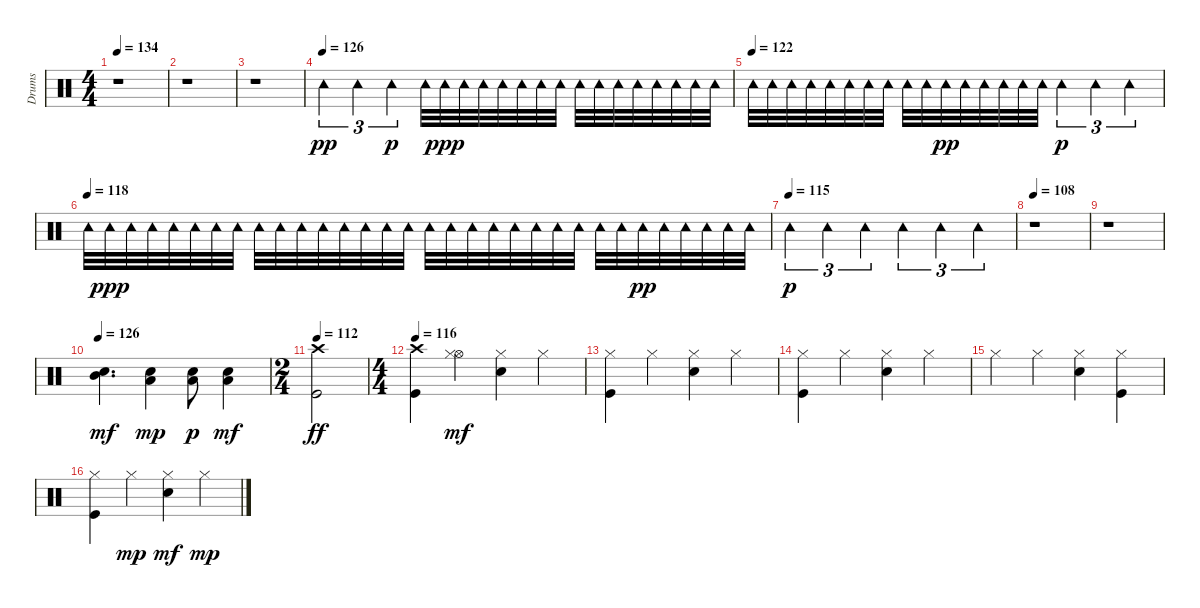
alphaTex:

\track ("Drums" "Drums") {instrument percussion}
\staff {score}
\articulation defaults
\ts (4 4)
\tempo 134
\clef neutral
\ks c
r.1{dy ppp} |
r.1 |
r.1 |
\tempo (126)
"Tambourine (hit)".4{tu (3 2) dy pp} "Tambourine (hit)".4{tu (3 2)} "Tambourine (hit)".4{tu (3 2) dy p} "Tambourine (hit)".32 "Tambourine (hit)".32{dy ppp} "Tambourine (hit)".32 "Tambourine (hit)".32 "Tambourine (hit)".32 "Tambourine (hit)".32 "Tambourine (hit)".32 "Tambourine (hit)".32 "Tambourine (hit)".32 "Tambourine (hit)".32 "Tambourine (hit)".32 "Tambourine (hit)".32 "Tambourine (hit)".32 "Tambourine (hit)".32 "Tambourine (hit)".32 "Tambourine (hit)".32 |
\tempo (122)
"Tambourine (hit)".32 "Tambourine (hit)".32 "Tambourine (hit)".32 "Tambourine (hit)".32 "Tambourine (hit)".32 "Tambourine (hit)".32 "Tambourine (hit)".32 "Tambourine (hit)".32 "Tambourine (hit)".32 "Tambourine (hit)".32 "Tambourine (hit)".32{dy pp} "Tambourine (hit)".32 "Tambourine (hit)".32 "Tambourine (hit)".32 "Tambourine (hit)".32 "Tambourine (hit)".32 "Tambourine (hit)".4{tu (3 2) dy p} "Tambourine (hit)".4{tu (3 2)} "Tambourine (hit)".4{tu (3 2)} |
\tempo (118)
"Tambourine (hit)".32 "Tambourine (hit)".32{dy ppp} "Tambourine (hit)".32 "Tambourine (hit)".32 "Tambourine (hit)".32 "Tambourine (hit)".32 "Tambourine (hit)".32 "Tambourine (hit)".32 "Tambourine (hit)".32 "Tambourine (hit)".32 "Tambourine (hit)".32 "Tambourine (hit)".32 "Tambourine (hit)".32 "Tambourine (hit)".32 "Tambourine (hit)".32 "Tambourine (hit)".32 "Tambourine (hit)".32 "Tambourine (hit)".32 "Tambourine (hit)".32 "Tambourine (hit)".32 "Tambourine (hit)".32 "Tambourine (hit)".32 "Tambourine (hit)".32 "Tambourine (hit)".32 "Tambourine (hit)".32 "Tambourine (hit)".32 "Tambourine (hit)".32{dy pp} "Tambourine (hit)".32 "Tambourine (hit)".32 "Tambourine (hit)".32 "Tambourine (hit)".32 "Tambourine (hit)".32 |
\tempo (115)
"Tambourine (hit)".4{tu (3 2) dy p} "Tambourine (hit)".4{tu (3 2)} "Tambourine (hit)".4{tu (3 2)} "Tambourine (hit)".4{tu (3 2)} "Tambourine (hit)".4{tu (3 2)} "Tambourine (hit)".4{tu (3 2)} |
\tempo 108
r.1 |
r.1 |
\tempo 126
("Snare (hit) 2" "Mid Tom (hit)").4{d dy mf} ("Snare (hit) 2" "Low Tom (hit)").4{dy mp} ("Snare (hit) 2" "Low Floor Tom (hit)").8{dy p} ("Snare (hit) 2" "Low Floor Tom (hit)").4{dy mf} |
\ts (2 4)
\tempo 112
("Crash high (hit)" "Kick (hit)").2{dy ff} |
\ts (4 4)
\tempo 116
("Crash high (hit)" "Kick (hit)").4 ("Hi-Hat (open)" "Hi-Hat (closed)").4{dy mf} ("Hi-Hat (closed)" "Snare (hit) 2").4 "Hi-Hat (closed)".4 |
("Hi-Hat (closed)" "Kick (hit)").4 "Hi-Hat (closed)".4 ("Hi-Hat (closed)" "Snare (hit) 2").4 "Hi-Hat (closed)".4 |
("Hi-Hat (closed)" "Kick (hit)").4 "Hi-Hat (closed)".4 ("Hi-Hat (closed)" "Snare (hit) 2").4 "Hi-Hat (closed)".4 |
"Hi-Hat (closed)".4 "Hi-Hat (closed)".4 ("Hi-Hat (closed)" "Snare (hit) 2").4 ("Hi-Hat (closed)" "Kick (hit)").4 |
("Hi-Hat (closed)" "Kick (hit)").4 "Hi-Hat (closed)".4{dy mp} ("Hi-Hat (closed)" "Snare (hit) 2").4{dy mf} "Hi-Hat (closed)".4{dy mp}
